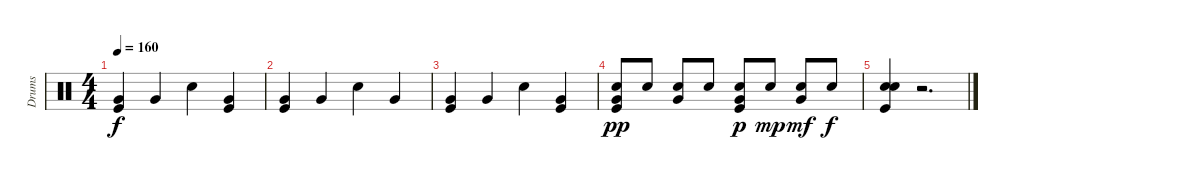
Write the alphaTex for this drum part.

\track ("Drums" "Drums") {instrument percussion}
\staff {score}
\articulation defaults
\ts (4 4)
\tempo 160
\clef neutral
\ks c
("Very Low Tom (hit)" "Kick (hit)").4{dy f} "Very Low Tom (hit)".4 "Snare (hit) 2".4 ("Very Low Tom (hit)" "Kick (hit)").4 |
("Very Low Tom (hit)" "Kick (hit)").4 "Very Low Tom (hit)".4 "Snare (hit) 2".4 "Very Low Tom (hit)".4 |
("Very Low Tom (hit)" "Kick (hit)").4 "Very Low Tom (hit)".4 "Snare (hit) 2".4 ("Very Low Tom (hit)" "Kick (hit)").4 |
("Very Low Tom (hit)" "Snare (hit) 2" "Kick (hit)").8{dy pp} "Snare (hit) 2".8 ("Very Low Tom (hit)" "Snare (hit) 2").8 "Snare (hit) 2".8 ("Very Low Tom (hit)" "Snare (hit) 2" "Kick (hit)").8{dy p} "Snare (hit) 2".8{dy mp} ("Very Low Tom (hit)" "Snare (hit) 2").8{dy mf} "Snare (hit) 2".8{dy f} |
("Snare (hit) 2" "Snare (hit) 2" "Kick (hit)").4{bd 120} r.2{d}
